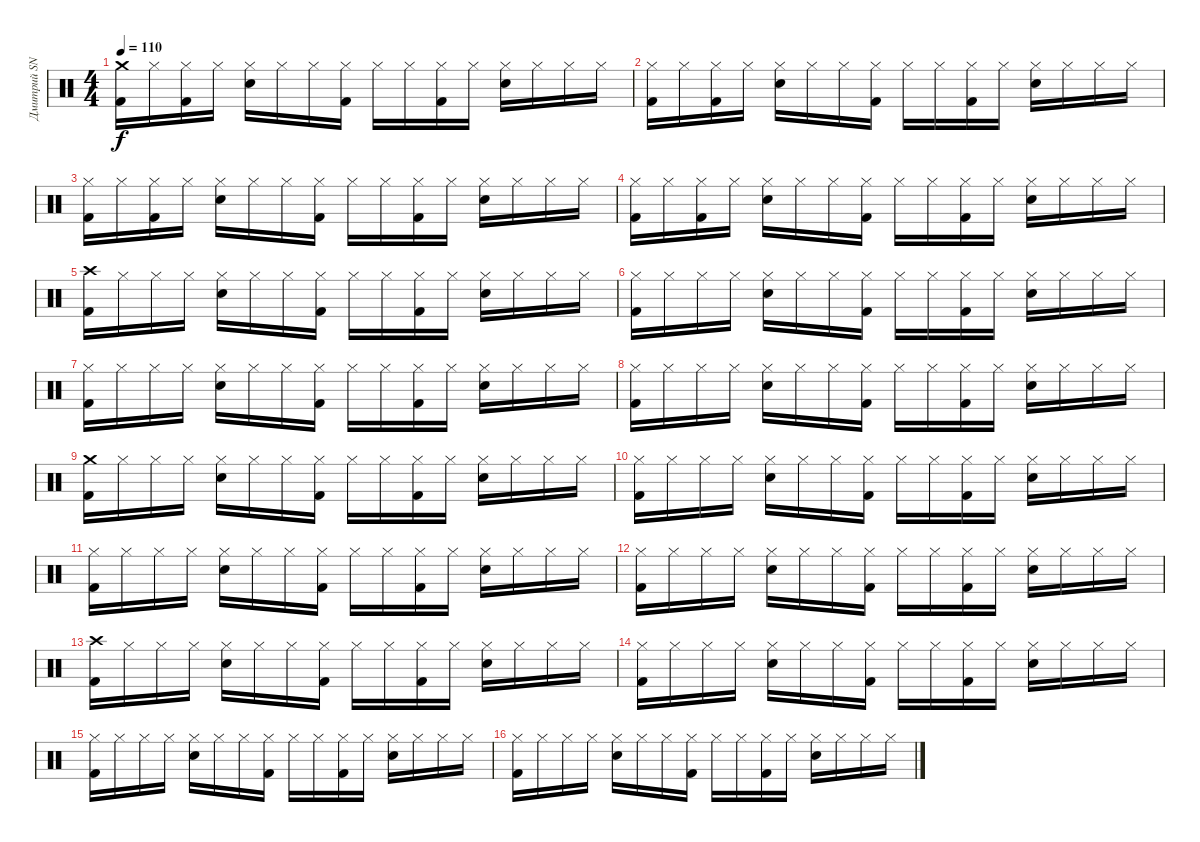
\track ("Дмитрий SNAKE Хакимов" "Дмитрий SN") {instrument percussion}
\staff {score}
\articulation defaults
\ts (4 4)
\tempo 110
\clef neutral
\ks c
("Crash medium (hit)" "Kick (hit) 2").16{dy f} "Hi-Hat (closed)".16 ("Hi-Hat (closed)" "Kick (hit) 2").16 "Hi-Hat (closed)".16 ("Hi-Hat (closed)" "Snare (hit) 2").16 "Hi-Hat (closed)".16 "Hi-Hat (closed)".16 ("Hi-Hat (closed)" "Kick (hit) 2").16 "Hi-Hat (closed)".16 "Hi-Hat (closed)".16 ("Hi-Hat (closed)" "Kick (hit) 2").16 "Hi-Hat (closed)".16 ("Hi-Hat (closed)" "Snare (hit) 2").16 "Hi-Hat (closed)".16 "Hi-Hat (closed)".16 "Hi-Hat (closed)".16 |
("Hi-Hat (closed)" "Kick (hit) 2").16 "Hi-Hat (closed)".16 ("Hi-Hat (closed)" "Kick (hit) 2").16 "Hi-Hat (closed)".16 ("Hi-Hat (closed)" "Snare (hit) 2").16 "Hi-Hat (closed)".16 "Hi-Hat (closed)".16 ("Hi-Hat (closed)" "Kick (hit) 2").16 "Hi-Hat (closed)".16 "Hi-Hat (closed)".16 ("Hi-Hat (closed)" "Kick (hit) 2").16 "Hi-Hat (closed)".16 ("Hi-Hat (closed)" "Snare (hit) 2").16 "Hi-Hat (closed)".16 "Hi-Hat (closed)".16 "Hi-Hat (closed)".16 |
("Hi-Hat (closed)" "Kick (hit) 2").16 "Hi-Hat (closed)".16 ("Hi-Hat (closed)" "Kick (hit) 2").16 "Hi-Hat (closed)".16 ("Hi-Hat (closed)" "Snare (hit) 2").16 "Hi-Hat (closed)".16 "Hi-Hat (closed)".16 ("Hi-Hat (closed)" "Kick (hit) 2").16 "Hi-Hat (closed)".16 "Hi-Hat (closed)".16 ("Hi-Hat (closed)" "Kick (hit) 2").16 "Hi-Hat (closed)".16 ("Hi-Hat (closed)" "Snare (hit) 2").16 "Hi-Hat (closed)".16 "Hi-Hat (closed)".16 "Hi-Hat (closed)".16 |
("Hi-Hat (closed)" "Kick (hit) 2").16 "Hi-Hat (closed)".16 ("Hi-Hat (closed)" "Kick (hit) 2").16 "Hi-Hat (closed)".16 ("Hi-Hat (closed)" "Snare (hit) 2").16 "Hi-Hat (closed)".16 "Hi-Hat (closed)".16 ("Hi-Hat (closed)" "Kick (hit) 2").16 "Hi-Hat (closed)".16 "Hi-Hat (closed)".16 ("Hi-Hat (closed)" "Kick (hit) 2").16 "Hi-Hat (closed)".16 ("Hi-Hat (closed)" "Snare (hit) 2").16 "Hi-Hat (closed)".16 "Hi-Hat (closed)".16 "Hi-Hat (closed)".16 |
("Crash high (hit)" "Kick (hit) 2").16 "Hi-Hat (closed)".16 "Hi-Hat (closed)".16 "Hi-Hat (closed)".16 ("Hi-Hat (closed)" "Electric Snare (hit)").16 "Hi-Hat (closed)".16 "Hi-Hat (closed)".16 ("Hi-Hat (closed)" "Kick (hit) 2").16 "Hi-Hat (closed)".16 "Hi-Hat (closed)".16 ("Hi-Hat (closed)" "Kick (hit) 2").16 "Hi-Hat (closed)".16 ("Hi-Hat (closed)" "Electric Snare (hit)").16 "Hi-Hat (closed)".16 "Hi-Hat (closed)".16 "Hi-Hat (closed)".16 |
("Hi-Hat (closed)" "Kick (hit) 2").16 "Hi-Hat (closed)".16 "Hi-Hat (closed)".16 "Hi-Hat (closed)".16 ("Hi-Hat (closed)" "Electric Snare (hit)").16 "Hi-Hat (closed)".16 "Hi-Hat (closed)".16 ("Hi-Hat (closed)" "Kick (hit) 2").16 "Hi-Hat (closed)".16 "Hi-Hat (closed)".16 ("Hi-Hat (closed)" "Kick (hit) 2").16 "Hi-Hat (closed)".16 ("Hi-Hat (closed)" "Electric Snare (hit)").16 "Hi-Hat (closed)".16 "Hi-Hat (closed)".16 "Hi-Hat (closed)".16 |
("Hi-Hat (closed)" "Kick (hit) 2").16 "Hi-Hat (closed)".16 "Hi-Hat (closed)".16 "Hi-Hat (closed)".16 ("Hi-Hat (closed)" "Electric Snare (hit)").16 "Hi-Hat (closed)".16 "Hi-Hat (closed)".16 ("Hi-Hat (closed)" "Kick (hit) 2").16 "Hi-Hat (closed)".16 "Hi-Hat (closed)".16 ("Hi-Hat (closed)" "Kick (hit) 2").16 "Hi-Hat (closed)".16 ("Hi-Hat (closed)" "Electric Snare (hit)").16 "Hi-Hat (closed)".16 "Hi-Hat (closed)".16 "Hi-Hat (closed)".16 |
("Hi-Hat (closed)" "Kick (hit) 2").16 "Hi-Hat (closed)".16 "Hi-Hat (closed)".16 "Hi-Hat (closed)".16 ("Hi-Hat (closed)" "Electric Snare (hit)").16 "Hi-Hat (closed)".16 "Hi-Hat (closed)".16 ("Hi-Hat (closed)" "Kick (hit) 2").16 "Hi-Hat (closed)".16 "Hi-Hat (closed)".16 ("Hi-Hat (closed)" "Kick (hit) 2").16 "Hi-Hat (closed)".16 ("Hi-Hat (closed)" "Electric Snare (hit)").16 "Hi-Hat (closed)".16 "Hi-Hat (closed)".16 "Hi-Hat (closed)".16 |
("Crash medium (hit)" "Kick (hit) 2").16 "Hi-Hat (closed)".16 "Hi-Hat (closed)".16 "Hi-Hat (closed)".16 ("Hi-Hat (closed)" "Electric Snare (hit)").16 "Hi-Hat (closed)".16 "Hi-Hat (closed)".16 ("Hi-Hat (closed)" "Kick (hit) 2").16 "Hi-Hat (closed)".16 "Hi-Hat (closed)".16 ("Hi-Hat (closed)" "Kick (hit) 2").16 "Hi-Hat (closed)".16 ("Hi-Hat (closed)" "Electric Snare (hit)").16 "Hi-Hat (closed)".16 "Hi-Hat (closed)".16 "Hi-Hat (closed)".16 |
("Hi-Hat (closed)" "Kick (hit) 2").16 "Hi-Hat (closed)".16 "Hi-Hat (closed)".16 "Hi-Hat (closed)".16 ("Hi-Hat (closed)" "Electric Snare (hit)").16 "Hi-Hat (closed)".16 "Hi-Hat (closed)".16 ("Hi-Hat (closed)" "Kick (hit) 2").16 "Hi-Hat (closed)".16 "Hi-Hat (closed)".16 ("Hi-Hat (closed)" "Kick (hit) 2").16 "Hi-Hat (closed)".16 ("Hi-Hat (closed)" "Electric Snare (hit)").16 "Hi-Hat (closed)".16 "Hi-Hat (closed)".16 "Hi-Hat (closed)".16 |
("Hi-Hat (closed)" "Kick (hit) 2").16 "Hi-Hat (closed)".16 "Hi-Hat (closed)".16 "Hi-Hat (closed)".16 ("Hi-Hat (closed)" "Electric Snare (hit)").16 "Hi-Hat (closed)".16 "Hi-Hat (closed)".16 ("Hi-Hat (closed)" "Kick (hit) 2").16 "Hi-Hat (closed)".16 "Hi-Hat (closed)".16 ("Hi-Hat (closed)" "Kick (hit) 2").16 "Hi-Hat (closed)".16 ("Hi-Hat (closed)" "Electric Snare (hit)").16 "Hi-Hat (closed)".16 "Hi-Hat (closed)".16 "Hi-Hat (closed)".16 |
("Hi-Hat (closed)" "Kick (hit) 2").16 "Hi-Hat (closed)".16 "Hi-Hat (closed)".16 "Hi-Hat (closed)".16 ("Hi-Hat (closed)" "Electric Snare (hit)").16 "Hi-Hat (closed)".16 "Hi-Hat (closed)".16 ("Hi-Hat (closed)" "Kick (hit) 2").16 "Hi-Hat (closed)".16 "Hi-Hat (closed)".16 ("Hi-Hat (closed)" "Kick (hit) 2").16 "Hi-Hat (closed)".16 ("Hi-Hat (closed)" "Electric Snare (hit)").16 "Hi-Hat (closed)".16 "Hi-Hat (closed)".16 "Hi-Hat (closed)".16 |
("Crash high (hit)" "Kick (hit) 2").16 "Hi-Hat (closed)".16 "Hi-Hat (closed)".16 "Hi-Hat (closed)".16 ("Hi-Hat (closed)" "Electric Snare (hit)").16 "Hi-Hat (closed)".16 "Hi-Hat (closed)".16 ("Hi-Hat (closed)" "Kick (hit) 2").16 "Hi-Hat (closed)".16 "Hi-Hat (closed)".16 ("Hi-Hat (closed)" "Kick (hit) 2").16 "Hi-Hat (closed)".16 ("Hi-Hat (closed)" "Electric Snare (hit)").16 "Hi-Hat (closed)".16 "Hi-Hat (closed)".16 "Hi-Hat (closed)".16 |
("Hi-Hat (closed)" "Kick (hit) 2").16 "Hi-Hat (closed)".16 "Hi-Hat (closed)".16 "Hi-Hat (closed)".16 ("Hi-Hat (closed)" "Electric Snare (hit)").16 "Hi-Hat (closed)".16 "Hi-Hat (closed)".16 ("Hi-Hat (closed)" "Kick (hit) 2").16 "Hi-Hat (closed)".16 "Hi-Hat (closed)".16 ("Hi-Hat (closed)" "Kick (hit) 2").16 "Hi-Hat (closed)".16 ("Hi-Hat (closed)" "Electric Snare (hit)").16 "Hi-Hat (closed)".16 "Hi-Hat (closed)".16 "Hi-Hat (closed)".16 |
("Hi-Hat (closed)" "Kick (hit) 2").16 "Hi-Hat (closed)".16 "Hi-Hat (closed)".16 "Hi-Hat (closed)".16 ("Hi-Hat (closed)" "Electric Snare (hit)").16 "Hi-Hat (closed)".16 "Hi-Hat (closed)".16 ("Hi-Hat (closed)" "Kick (hit) 2").16 "Hi-Hat (closed)".16 "Hi-Hat (closed)".16 ("Hi-Hat (closed)" "Kick (hit) 2").16 "Hi-Hat (closed)".16 ("Hi-Hat (closed)" "Electric Snare (hit)").16 "Hi-Hat (closed)".16 "Hi-Hat (closed)".16 "Hi-Hat (closed)".16 |
("Hi-Hat (closed)" "Kick (hit) 2").16 "Hi-Hat (closed)".16 "Hi-Hat (closed)".16 "Hi-Hat (closed)".16 ("Hi-Hat (closed)" "Electric Snare (hit)").16 "Hi-Hat (closed)".16 "Hi-Hat (closed)".16 ("Hi-Hat (closed)" "Kick (hit) 2").16 "Hi-Hat (closed)".16 "Hi-Hat (closed)".16 ("Hi-Hat (closed)" "Kick (hit) 2").16 "Hi-Hat (closed)".16 ("Hi-Hat (closed)" "Electric Snare (hit)").16 "Hi-Hat (closed)".16 "Hi-Hat (closed)".16 "Hi-Hat (closed)".16
